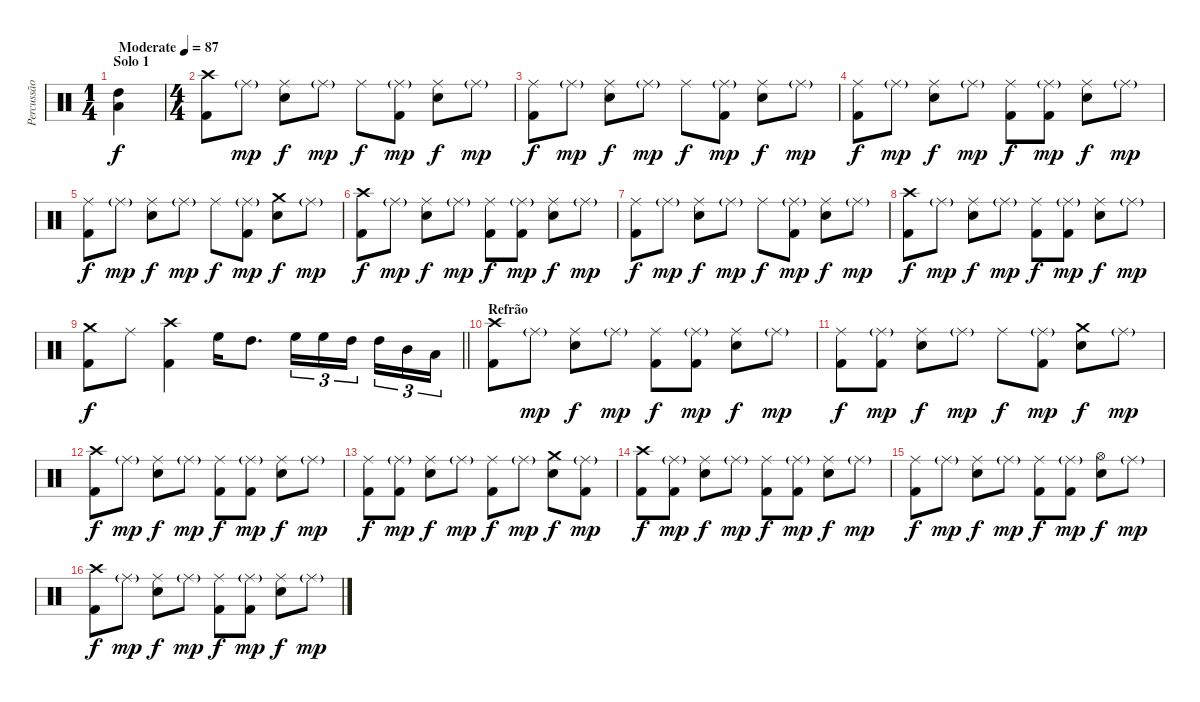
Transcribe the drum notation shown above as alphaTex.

\track ("Percussão" "Percussão") {instrument percussion}
\staff {score}
\articulation defaults
\ts (1 4)
\section ("" "Solo 1")
\tempo (87 "Moderate")
\clef neutral
\ks c
("High Tom (hit)" "Low Tom (hit)").4{dy f} |
\ts (4 4)
("Crash high (hit)" "Kick (hit) 2").8 "Ride (middle)"{g}.8{dy mp} ("Ride (middle)" "Snare (hit) 2").8{dy f} "Ride (middle)"{g}.8{dy mp} "Ride (middle)".8{dy f} ("Ride (middle)"{g} "Kick (hit) 2").8{dy mp} ("Ride (middle)" "Snare (hit) 2").8{dy f} "Ride (middle)"{g}.8{dy mp} |
("Ride (middle)" "Kick (hit) 2").8{dy f} "Ride (middle)"{g}.8{dy mp} ("Ride (middle)" "Snare (hit) 2").8{dy f} "Ride (middle)"{g}.8{dy mp} "Ride (middle)".8{dy f} ("Ride (middle)"{g} "Kick (hit) 2").8{dy mp} ("Ride (middle)" "Snare (hit) 2").8{dy f} "Ride (middle)"{g}.8{dy mp} |
("Ride (middle)" "Kick (hit) 2").8{dy f} "Ride (middle)"{g}.8{dy mp} ("Ride (middle)" "Snare (hit) 2").8{dy f} "Ride (middle)"{g}.8{dy mp} ("Ride (middle)" "Kick (hit) 2").8{dy f} ("Ride (middle)"{g} "Kick (hit) 2").8{dy mp} ("Ride (middle)" "Snare (hit) 2").8{dy f} "Ride (middle)"{g}.8{dy mp} |
("Ride (middle)" "Kick (hit) 2").8{dy f} "Ride (middle)"{g}.8{dy mp} ("Ride (middle)" "Snare (hit) 2").8{dy f} "Ride (middle)"{g}.8{dy mp} "Ride (middle)".8{dy f} ("Ride (middle)"{g} "Kick (hit) 2").8{dy mp} ("Crash medium (hit)" "Snare (hit) 2").8{dy f} "Ride (middle)"{g}.8{dy mp} |
("Crash high (hit)" "Kick (hit) 2").8{dy f} "Ride (middle)"{g}.8{dy mp} ("Ride (middle)" "Snare (hit) 2").8{dy f} "Ride (middle)"{g}.8{dy mp} ("Ride (middle)" "Kick (hit) 2").8{dy f} ("Ride (middle)"{g} "Kick (hit) 2").8{dy mp} ("Ride (middle)" "Snare (hit) 2").8{dy f} "Ride (middle)"{g}.8{dy mp} |
("Ride (middle)" "Kick (hit) 2").8{dy f} "Ride (middle)"{g}.8{dy mp} ("Ride (middle)" "Snare (hit) 2").8{dy f} "Ride (middle)"{g}.8{dy mp} "Ride (middle)".8{dy f} ("Ride (middle)"{g} "Kick (hit) 2").8{dy mp} ("Ride (middle)" "Snare (hit) 2").8{dy f} "Ride (middle)"{g}.8{dy mp} |
("Crash high (hit)" "Kick (hit) 2").8{dy f} "Ride (middle)"{g}.8{dy mp} ("Ride (middle)" "Snare (hit) 2").8{dy f} "Ride (middle)"{g}.8{dy mp} ("Ride (middle)" "Kick (hit) 2").8{dy f} ("Ride (middle)"{g} "Kick (hit) 2").8{dy mp} ("Ride (middle)" "Snare (hit) 2").8{dy f} "Ride (middle)"{g}.8{dy mp} |
\barLineRight lightlight
("Crash medium (hit)" "Kick (hit) 2").8{dy f} "Ride (middle)".8 ("Crash high (hit)" "Kick (hit) 2").4 "High Floor Tom (hit)".16 "High Tom (hit)".8{d} "High Floor Tom (hit)".16{tu (3 2)} "High Floor Tom (hit)".16{tu (3 2)} "High Tom (hit)".16{tu (3 2) beam splitsecondary} "High Tom (hit)".16{tu (3 2)} "Mid Tom (hit)".16{tu (3 2)} "Low Tom (hit)".16{tu (3 2)} |
\section ("" "Refrão")
("Crash high (hit)" "Kick (hit) 2").8 "Ride (middle)"{g}.8{dy mp} ("Ride (middle)" "Snare (hit) 2").8{dy f} "Ride (middle)"{g}.8{dy mp} ("Ride (middle)" "Kick (hit) 2").8{dy f} ("Ride (middle)"{g} "Kick (hit) 2").8{dy mp} ("Ride (middle)" "Snare (hit) 2").8{dy f} "Ride (middle)"{g}.8{dy mp} |
("Ride (middle)" "Kick (hit) 2").8{dy f} ("Ride (middle)"{g} "Kick (hit) 2").8{dy mp} ("Ride (middle)" "Snare (hit) 2").8{dy f} "Ride (middle)"{g}.8{dy mp} "Ride (middle)".8{dy f} ("Ride (middle)"{g} "Kick (hit) 2").8{dy mp} ("Crash medium (hit)" "Snare (hit) 2").8{dy f} "Ride (middle)"{g}.8{dy mp} |
("Crash high (hit)" "Kick (hit) 2").8{dy f} "Ride (middle)"{g}.8{dy mp} ("Ride (middle)" "Snare (hit) 2").8{dy f} "Ride (middle)"{g}.8{dy mp} ("Ride (middle)" "Kick (hit) 2").8{dy f} ("Ride (middle)"{g} "Kick (hit) 2").8{dy mp} ("Ride (middle)" "Snare (hit) 2").8{dy f} "Ride (middle)"{g}.8{dy mp} |
("Ride (middle)" "Kick (hit) 2").8{dy f} ("Ride (middle)"{g} "Kick (hit) 2").8{dy mp} ("Ride (middle)" "Snare (hit) 2").8{dy f} "Ride (middle)"{g}.8{dy mp} ("Ride (middle)" "Kick (hit) 2").8{dy f} "Ride (middle)"{g}.8{dy mp} ("Crash medium (hit)" "Snare (hit) 2").8{dy f} ("Ride (middle)"{g} "Kick (hit) 2").8{dy mp} |
("Crash high (hit)" "Kick (hit) 2").8{dy f} ("Ride (middle)"{g} "Kick (hit) 2").8{dy mp} ("Ride (middle)" "Snare (hit) 2").8{dy f} "Ride (middle)"{g}.8{dy mp} ("Ride (middle)" "Kick (hit) 2").8{dy f} ("Ride (middle)"{g} "Kick (hit) 2").8{dy mp} ("Ride (middle)" "Snare (hit) 2").8{dy f} "Ride (middle)"{g}.8{dy mp} |
("Ride (middle)" "Kick (hit) 2").8{dy f} "Ride (middle)"{g}.8{dy mp} ("Ride (middle)" "Snare (hit) 2").8{dy f} "Ride (middle)"{g}.8{dy mp} ("Ride (middle)" "Kick (hit) 2").8{dy f} ("Ride (middle)"{g} "Kick (hit) 2").8{dy mp} ("Hi-Hat (open)" "Snare (hit) 2").8{dy f} "Ride (middle)"{g}.8{dy mp} |
("Crash high (hit)" "Kick (hit) 2").8{dy f} "Ride (middle)"{g}.8{dy mp} ("Ride (middle)" "Snare (hit) 2").8{dy f} "Ride (middle)"{g}.8{dy mp} ("Ride (middle)" "Kick (hit) 2").8{dy f} ("Ride (middle)"{g} "Kick (hit) 2").8{dy mp} ("Ride (middle)" "Snare (hit) 2").8{dy f} "Ride (middle)"{g}.8{dy mp}
